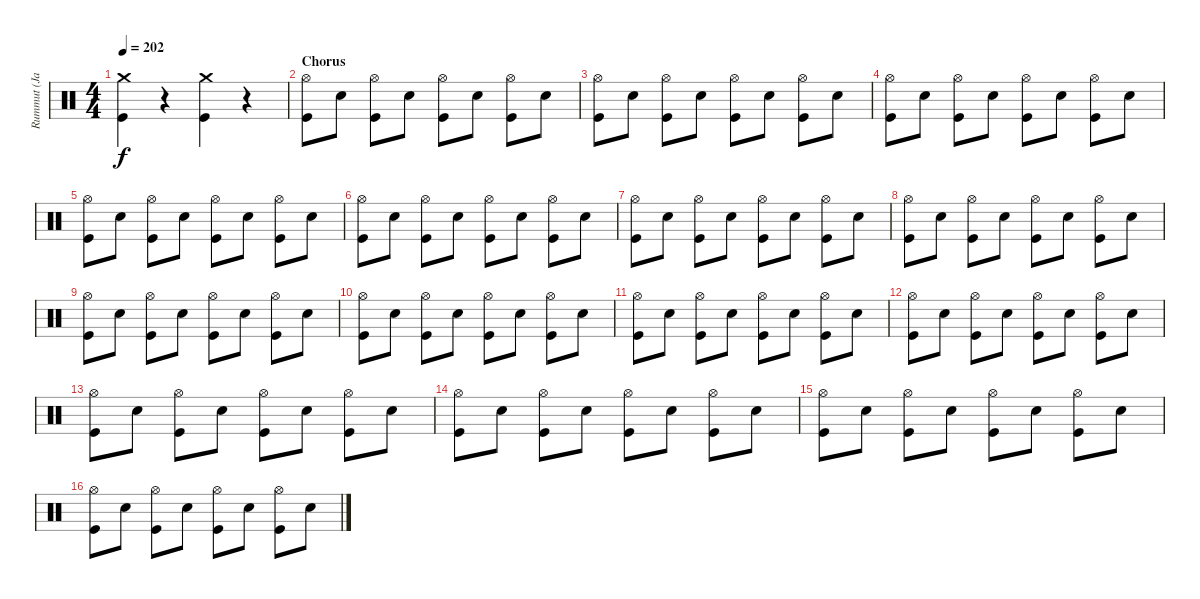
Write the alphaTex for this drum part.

\track ("Rummut (Janne)" "Rummut (Ja") {instrument percussion}
\staff {score}
\articulation defaults
\ts (4 4)
\tempo 202
\clef neutral
\ks c
("Crash medium (hit)" "Kick (hit)").4{dy f} r.4 ("Crash medium (hit)" "Kick (hit)").4 r.4 |
\section ("" "Chorus")
("Hi-Hat (open)" "Kick (hit)").8 "Snare (hit) 2".8 ("Hi-Hat (open)" "Kick (hit)").8 "Snare (hit) 2".8 ("Hi-Hat (open)" "Kick (hit)").8 "Snare (hit) 2".8 ("Hi-Hat (open)" "Kick (hit)").8 "Snare (hit) 2".8 |
("Hi-Hat (open)" "Kick (hit)").8 "Snare (hit) 2".8 ("Hi-Hat (open)" "Kick (hit)").8 "Snare (hit) 2".8 ("Hi-Hat (open)" "Kick (hit)").8 "Snare (hit) 2".8 ("Hi-Hat (open)" "Kick (hit)").8 "Snare (hit) 2".8 |
("Hi-Hat (open)" "Kick (hit)").8 "Snare (hit) 2".8 ("Hi-Hat (open)" "Kick (hit)").8 "Snare (hit) 2".8 ("Hi-Hat (open)" "Kick (hit)").8 "Snare (hit) 2".8 ("Hi-Hat (open)" "Kick (hit)").8 "Snare (hit) 2".8 |
("Hi-Hat (open)" "Kick (hit)").8 "Snare (hit) 2".8 ("Hi-Hat (open)" "Kick (hit)").8 "Snare (hit) 2".8 ("Hi-Hat (open)" "Kick (hit)").8 "Snare (hit) 2".8 ("Hi-Hat (open)" "Kick (hit)").8 "Snare (hit) 2".8 |
("Hi-Hat (open)" "Kick (hit)").8 "Snare (hit) 2".8 ("Hi-Hat (open)" "Kick (hit)").8 "Snare (hit) 2".8 ("Hi-Hat (open)" "Kick (hit)").8 "Snare (hit) 2".8 ("Hi-Hat (open)" "Kick (hit)").8 "Snare (hit) 2".8 |
("Hi-Hat (open)" "Kick (hit)").8 "Snare (hit) 2".8 ("Hi-Hat (open)" "Kick (hit)").8 "Snare (hit) 2".8 ("Hi-Hat (open)" "Kick (hit)").8 "Snare (hit) 2".8 ("Hi-Hat (open)" "Kick (hit)").8 "Snare (hit) 2".8 |
("Hi-Hat (open)" "Kick (hit)").8 "Snare (hit) 2".8 ("Hi-Hat (open)" "Kick (hit)").8 "Snare (hit) 2".8 ("Hi-Hat (open)" "Kick (hit)").8 "Snare (hit) 2".8 ("Hi-Hat (open)" "Kick (hit)").8 "Snare (hit) 2".8 |
("Hi-Hat (open)" "Kick (hit)").8 "Snare (hit) 2".8 ("Hi-Hat (open)" "Kick (hit)").8 "Snare (hit) 2".8 ("Hi-Hat (open)" "Kick (hit)").8 "Snare (hit) 2".8 ("Hi-Hat (open)" "Kick (hit)").8 "Snare (hit) 2".8 |
("Hi-Hat (open)" "Kick (hit)").8 "Snare (hit) 2".8 ("Hi-Hat (open)" "Kick (hit)").8 "Snare (hit) 2".8 ("Hi-Hat (open)" "Kick (hit)").8 "Snare (hit) 2".8 ("Hi-Hat (open)" "Kick (hit)").8 "Snare (hit) 2".8 |
("Hi-Hat (open)" "Kick (hit)").8 "Snare (hit) 2".8 ("Hi-Hat (open)" "Kick (hit)").8 "Snare (hit) 2".8 ("Hi-Hat (open)" "Kick (hit)").8 "Snare (hit) 2".8 ("Hi-Hat (open)" "Kick (hit)").8 "Snare (hit) 2".8 |
("Hi-Hat (open)" "Kick (hit)").8 "Snare (hit) 2".8 ("Hi-Hat (open)" "Kick (hit)").8 "Snare (hit) 2".8 ("Hi-Hat (open)" "Kick (hit)").8 "Snare (hit) 2".8 ("Hi-Hat (open)" "Kick (hit)").8 "Snare (hit) 2".8 |
("Hi-Hat (open)" "Kick (hit)").8 "Snare (hit) 2".8 ("Hi-Hat (open)" "Kick (hit)").8 "Snare (hit) 2".8 ("Hi-Hat (open)" "Kick (hit)").8 "Snare (hit) 2".8 ("Hi-Hat (open)" "Kick (hit)").8 "Snare (hit) 2".8 |
("Hi-Hat (open)" "Kick (hit)").8 "Snare (hit) 2".8 ("Hi-Hat (open)" "Kick (hit)").8 "Snare (hit) 2".8 ("Hi-Hat (open)" "Kick (hit)").8 "Snare (hit) 2".8 ("Hi-Hat (open)" "Kick (hit)").8 "Snare (hit) 2".8 |
("Hi-Hat (open)" "Kick (hit)").8 "Snare (hit) 2".8 ("Hi-Hat (open)" "Kick (hit)").8 "Snare (hit) 2".8 ("Hi-Hat (open)" "Kick (hit)").8 "Snare (hit) 2".8 ("Hi-Hat (open)" "Kick (hit)").8 "Snare (hit) 2".8 |
("Hi-Hat (open)" "Kick (hit)").8 "Snare (hit) 2".8 ("Hi-Hat (open)" "Kick (hit)").8 "Snare (hit) 2".8 ("Hi-Hat (open)" "Kick (hit)").8 "Snare (hit) 2".8 ("Hi-Hat (open)" "Kick (hit)").8 "Snare (hit) 2".8
